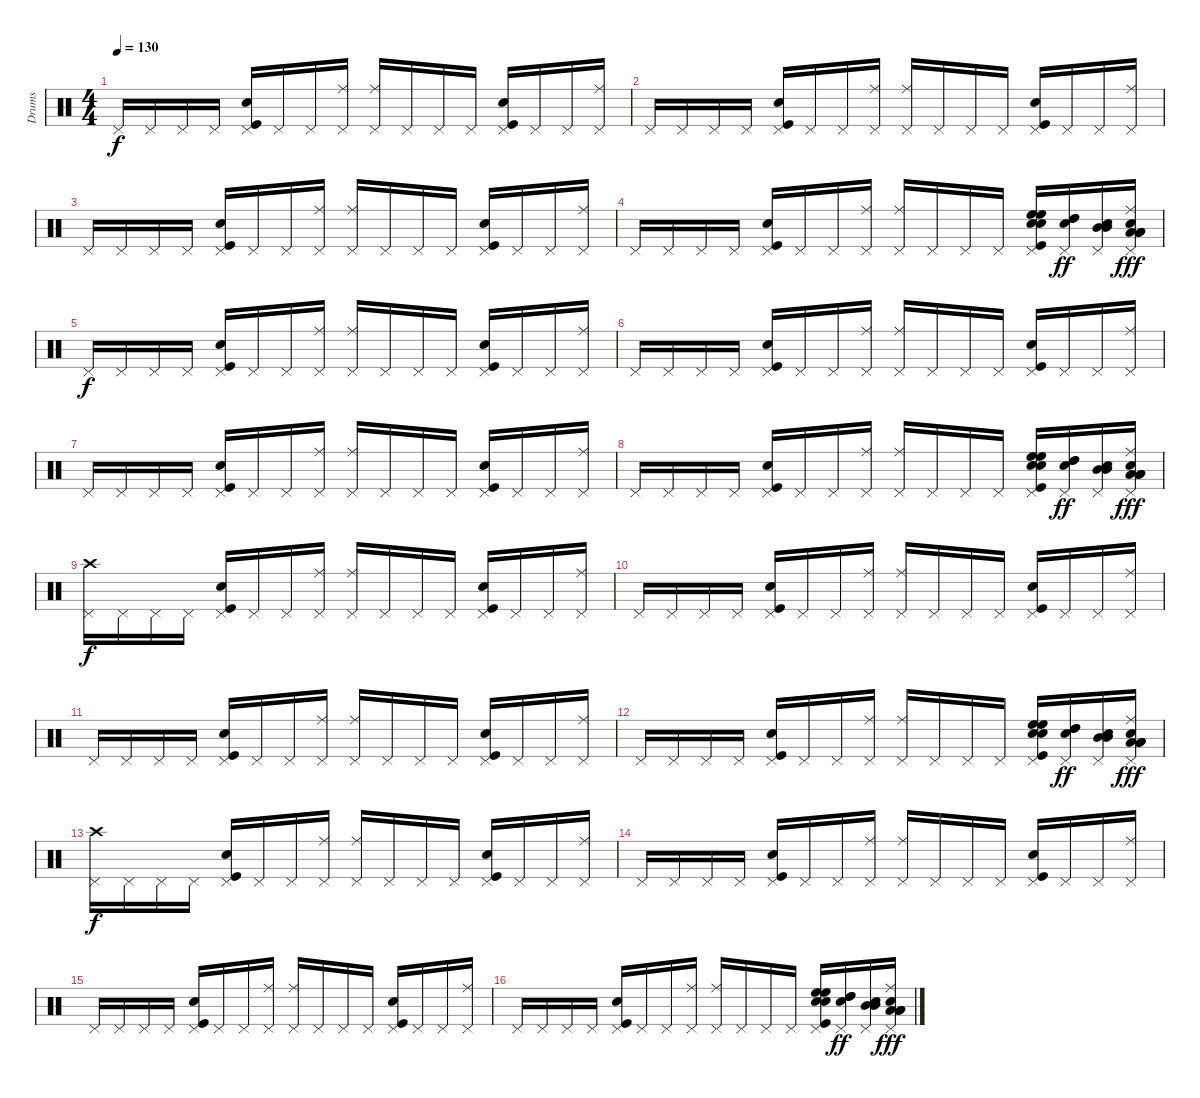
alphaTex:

\track ("Drums" "Drums") {instrument percussion}
\staff {score}
\articulation defaults
\ts (4 4)
\tempo 130
\clef neutral
\ks c "Pedal Hi-Hat (hit)".16{dy f} "Pedal Hi-Hat (hit)".16 "Pedal Hi-Hat (hit)".16 "Pedal Hi-Hat (hit)".16
("Pedal Hi-Hat (hit)" "Kick (hit)" "Electric Snare (hit)").16 "Pedal Hi-Hat (hit)".16 "Pedal Hi-Hat (hit)".16 ("Pedal Hi-Hat (hit)" "Ride (middle)").16 ("Pedal Hi-Hat (hit)" "Ride (middle)").16 "Pedal Hi-Hat (hit)".16 "Pedal Hi-Hat (hit)".16 "Pedal Hi-Hat (hit)".16 ("Kick (hit)" "Pedal Hi-Hat (hit)" "Electric Snare (hit)").16 "Pedal Hi-Hat (hit)".16 "Pedal Hi-Hat (hit)".16 ("Pedal Hi-Hat (hit)" "Ride (middle)").16 |
"Pedal Hi-Hat (hit)".16 "Pedal Hi-Hat (hit)".16 "Pedal Hi-Hat (hit)".16 "Pedal Hi-Hat (hit)".16 ("Pedal Hi-Hat (hit)" "Kick (hit)" "Electric Snare (hit)").16 "Pedal Hi-Hat (hit)".16 "Pedal Hi-Hat (hit)".16 ("Pedal Hi-Hat (hit)" "Ride (middle)").16 ("Pedal Hi-Hat (hit)" "Ride (middle)").16 "Pedal Hi-Hat (hit)".16 "Pedal Hi-Hat (hit)".16 "Pedal Hi-Hat (hit)".16 ("Kick (hit)" "Pedal Hi-Hat (hit)" "Electric Snare (hit)").16 "Pedal Hi-Hat (hit)".16 "Pedal Hi-Hat (hit)".16 ("Pedal Hi-Hat (hit)" "Ride (middle)").16 |
"Pedal Hi-Hat (hit)".16 "Pedal Hi-Hat (hit)".16 "Pedal Hi-Hat (hit)".16 "Pedal Hi-Hat (hit)".16 ("Pedal Hi-Hat (hit)" "Kick (hit)" "Electric Snare (hit)").16 "Pedal Hi-Hat (hit)".16 "Pedal Hi-Hat (hit)".16 ("Pedal Hi-Hat (hit)" "Ride (middle)").16 ("Pedal Hi-Hat (hit)" "Ride (middle)").16 "Pedal Hi-Hat (hit)".16 "Pedal Hi-Hat (hit)".16 "Pedal Hi-Hat (hit)".16 ("Kick (hit)" "Pedal Hi-Hat (hit)" "Electric Snare (hit)").16 "Pedal Hi-Hat (hit)".16 "Pedal Hi-Hat (hit)".16 ("Pedal Hi-Hat (hit)" "Ride (middle)").16 |
"Pedal Hi-Hat (hit)".16 "Pedal Hi-Hat (hit)".16 "Pedal Hi-Hat (hit)".16 "Pedal Hi-Hat (hit)".16 ("Pedal Hi-Hat (hit)" "Kick (hit)" "Electric Snare (hit)").16 "Pedal Hi-Hat (hit)".16 "Pedal Hi-Hat (hit)".16 ("Pedal Hi-Hat (hit)" "Ride (middle)").16 ("Pedal Hi-Hat (hit)" "Ride (middle)").16 "Pedal Hi-Hat (hit)".16 "Pedal Hi-Hat (hit)".16 "Pedal Hi-Hat (hit)".16 ("Kick (hit)" "Pedal Hi-Hat (hit)" "Electric Snare (hit)" "High Floor Tom (hit)" "High Floor Tom (hit)" "Snare (hit) 2").16 ("Pedal Hi-Hat (hit)" "High Tom (hit)" "High Tom (hit)" "Snare (hit) 2").16{dy ff} ("Pedal Hi-Hat (hit)" "Mid Tom (hit)" "Mid Tom (hit)" "Snare (hit) 2").16 ("Pedal Hi-Hat (hit)" "Ride (middle)" "Low Tom (hit)" "Low Tom (hit)" "Low Tom (hit)" "Snare (hit) 2").16{dy fff} |
"Pedal Hi-Hat (hit)".16{dy f} "Pedal Hi-Hat (hit)".16 "Pedal Hi-Hat (hit)".16 "Pedal Hi-Hat (hit)".16 ("Pedal Hi-Hat (hit)" "Kick (hit)" "Electric Snare (hit)").16 "Pedal Hi-Hat (hit)".16 "Pedal Hi-Hat (hit)".16 ("Pedal Hi-Hat (hit)" "Ride (middle)").16 ("Pedal Hi-Hat (hit)" "Ride (middle)").16 "Pedal Hi-Hat (hit)".16 "Pedal Hi-Hat (hit)".16 "Pedal Hi-Hat (hit)".16 ("Kick (hit)" "Pedal Hi-Hat (hit)" "Electric Snare (hit)").16 "Pedal Hi-Hat (hit)".16 "Pedal Hi-Hat (hit)".16 ("Pedal Hi-Hat (hit)" "Ride (middle)").16 |
"Pedal Hi-Hat (hit)".16 "Pedal Hi-Hat (hit)".16 "Pedal Hi-Hat (hit)".16 "Pedal Hi-Hat (hit)".16 ("Pedal Hi-Hat (hit)" "Kick (hit)" "Electric Snare (hit)").16 "Pedal Hi-Hat (hit)".16 "Pedal Hi-Hat (hit)".16 ("Pedal Hi-Hat (hit)" "Ride (middle)").16 ("Pedal Hi-Hat (hit)" "Ride (middle)").16 "Pedal Hi-Hat (hit)".16 "Pedal Hi-Hat (hit)".16 "Pedal Hi-Hat (hit)".16 ("Kick (hit)" "Pedal Hi-Hat (hit)" "Electric Snare (hit)").16 "Pedal Hi-Hat (hit)".16 "Pedal Hi-Hat (hit)".16 ("Pedal Hi-Hat (hit)" "Ride (middle)").16 |
"Pedal Hi-Hat (hit)".16 "Pedal Hi-Hat (hit)".16 "Pedal Hi-Hat (hit)".16 "Pedal Hi-Hat (hit)".16 ("Pedal Hi-Hat (hit)" "Kick (hit)" "Electric Snare (hit)").16 "Pedal Hi-Hat (hit)".16 "Pedal Hi-Hat (hit)".16 ("Pedal Hi-Hat (hit)" "Ride (middle)").16 ("Pedal Hi-Hat (hit)" "Ride (middle)").16 "Pedal Hi-Hat (hit)".16 "Pedal Hi-Hat (hit)".16 "Pedal Hi-Hat (hit)".16 ("Kick (hit)" "Pedal Hi-Hat (hit)" "Electric Snare (hit)").16 "Pedal Hi-Hat (hit)".16 "Pedal Hi-Hat (hit)".16 ("Pedal Hi-Hat (hit)" "Ride (middle)").16 |
"Pedal Hi-Hat (hit)".16 "Pedal Hi-Hat (hit)".16 "Pedal Hi-Hat (hit)".16 "Pedal Hi-Hat (hit)".16 ("Pedal Hi-Hat (hit)" "Kick (hit)" "Electric Snare (hit)").16 "Pedal Hi-Hat (hit)".16 "Pedal Hi-Hat (hit)".16 ("Pedal Hi-Hat (hit)" "Ride (middle)").16 ("Pedal Hi-Hat (hit)" "Ride (middle)").16 "Pedal Hi-Hat (hit)".16 "Pedal Hi-Hat (hit)".16 "Pedal Hi-Hat (hit)".16 ("Kick (hit)" "Pedal Hi-Hat (hit)" "Electric Snare (hit)" "High Floor Tom (hit)" "High Floor Tom (hit)" "Snare (hit) 2").16 ("Pedal Hi-Hat (hit)" "High Tom (hit)" "High Tom (hit)" "Snare (hit) 2").16{dy ff} ("Pedal Hi-Hat (hit)" "Mid Tom (hit)" "Mid Tom (hit)" "Snare (hit) 2").16 ("Pedal Hi-Hat (hit)" "Ride (middle)" "Low Tom (hit)" "Low Tom (hit)" "Low Tom (hit)" "Snare (hit) 2").16{dy fff} |
("Pedal Hi-Hat (hit)" "Crash high (hit)").16{dy f} "Pedal Hi-Hat (hit)".16 "Pedal Hi-Hat (hit)".16 "Pedal Hi-Hat (hit)".16 ("Pedal Hi-Hat (hit)" "Kick (hit)" "Electric Snare (hit)").16 "Pedal Hi-Hat (hit)".16 "Pedal Hi-Hat (hit)".16 ("Pedal Hi-Hat (hit)" "Ride (middle)").16 ("Pedal Hi-Hat (hit)" "Ride (middle)").16 "Pedal Hi-Hat (hit)".16 "Pedal Hi-Hat (hit)".16 "Pedal Hi-Hat (hit)".16 ("Kick (hit)" "Pedal Hi-Hat (hit)" "Electric Snare (hit)").16 "Pedal Hi-Hat (hit)".16 "Pedal Hi-Hat (hit)".16 ("Pedal Hi-Hat (hit)" "Ride (middle)").16 |
"Pedal Hi-Hat (hit)".16 "Pedal Hi-Hat (hit)".16 "Pedal Hi-Hat (hit)".16 "Pedal Hi-Hat (hit)".16 ("Pedal Hi-Hat (hit)" "Kick (hit)" "Electric Snare (hit)").16 "Pedal Hi-Hat (hit)".16 "Pedal Hi-Hat (hit)".16 ("Pedal Hi-Hat (hit)" "Ride (middle)").16 ("Pedal Hi-Hat (hit)" "Ride (middle)").16 "Pedal Hi-Hat (hit)".16 "Pedal Hi-Hat (hit)".16 "Pedal Hi-Hat (hit)".16 ("Kick (hit)" "Pedal Hi-Hat (hit)" "Electric Snare (hit)").16 "Pedal Hi-Hat (hit)".16 "Pedal Hi-Hat (hit)".16 ("Pedal Hi-Hat (hit)" "Ride (middle)").16 |
"Pedal Hi-Hat (hit)".16 "Pedal Hi-Hat (hit)".16 "Pedal Hi-Hat (hit)".16 "Pedal Hi-Hat (hit)".16 ("Pedal Hi-Hat (hit)" "Kick (hit)" "Electric Snare (hit)").16 "Pedal Hi-Hat (hit)".16 "Pedal Hi-Hat (hit)".16 ("Pedal Hi-Hat (hit)" "Ride (middle)").16 ("Pedal Hi-Hat (hit)" "Ride (middle)").16 "Pedal Hi-Hat (hit)".16 "Pedal Hi-Hat (hit)".16 "Pedal Hi-Hat (hit)".16 ("Kick (hit)" "Pedal Hi-Hat (hit)" "Electric Snare (hit)").16 "Pedal Hi-Hat (hit)".16 "Pedal Hi-Hat (hit)".16 ("Pedal Hi-Hat (hit)" "Ride (middle)").16 |
"Pedal Hi-Hat (hit)".16 "Pedal Hi-Hat (hit)".16 "Pedal Hi-Hat (hit)".16 "Pedal Hi-Hat (hit)".16 ("Pedal Hi-Hat (hit)" "Kick (hit)" "Electric Snare (hit)").16 "Pedal Hi-Hat (hit)".16 "Pedal Hi-Hat (hit)".16 ("Pedal Hi-Hat (hit)" "Ride (middle)").16 ("Pedal Hi-Hat (hit)" "Ride (middle)").16 "Pedal Hi-Hat (hit)".16 "Pedal Hi-Hat (hit)".16 "Pedal Hi-Hat (hit)".16 ("Kick (hit)" "Pedal Hi-Hat (hit)" "Electric Snare (hit)" "High Floor Tom (hit)" "High Floor Tom (hit)" "Snare (hit) 2").16 ("Pedal Hi-Hat (hit)" "High Tom (hit)" "High Tom (hit)" "Snare (hit) 2").16{dy ff} ("Pedal Hi-Hat (hit)" "Mid Tom (hit)" "Mid Tom (hit)" "Snare (hit) 2").16 ("Pedal Hi-Hat (hit)" "Ride (middle)" "Low Tom (hit)" "Low Tom (hit)" "Low Tom (hit)" "Snare (hit) 2").16{dy fff} |
("Pedal Hi-Hat (hit)" "Crash high (hit)").16{dy f} "Pedal Hi-Hat (hit)".16 "Pedal Hi-Hat (hit)".16 "Pedal Hi-Hat (hit)".16 ("Pedal Hi-Hat (hit)" "Kick (hit)" "Electric Snare (hit)").16 "Pedal Hi-Hat (hit)".16 "Pedal Hi-Hat (hit)".16 ("Pedal Hi-Hat (hit)" "Ride (middle)").16 ("Pedal Hi-Hat (hit)" "Ride (middle)").16 "Pedal Hi-Hat (hit)".16 "Pedal Hi-Hat (hit)".16 "Pedal Hi-Hat (hit)".16 ("Kick (hit)" "Pedal Hi-Hat (hit)" "Electric Snare (hit)").16 "Pedal Hi-Hat (hit)".16 "Pedal Hi-Hat (hit)".16 ("Pedal Hi-Hat (hit)" "Ride (middle)").16 |
"Pedal Hi-Hat (hit)".16 "Pedal Hi-Hat (hit)".16 "Pedal Hi-Hat (hit)".16 "Pedal Hi-Hat (hit)".16 ("Pedal Hi-Hat (hit)" "Kick (hit)" "Electric Snare (hit)").16 "Pedal Hi-Hat (hit)".16 "Pedal Hi-Hat (hit)".16 ("Pedal Hi-Hat (hit)" "Ride (middle)").16 ("Pedal Hi-Hat (hit)" "Ride (middle)").16 "Pedal Hi-Hat (hit)".16 "Pedal Hi-Hat (hit)".16 "Pedal Hi-Hat (hit)".16 ("Kick (hit)" "Pedal Hi-Hat (hit)" "Electric Snare (hit)").16 "Pedal Hi-Hat (hit)".16 "Pedal Hi-Hat (hit)".16 ("Pedal Hi-Hat (hit)" "Ride (middle)").16 |
"Pedal Hi-Hat (hit)".16 "Pedal Hi-Hat (hit)".16 "Pedal Hi-Hat (hit)".16 "Pedal Hi-Hat (hit)".16 ("Pedal Hi-Hat (hit)" "Kick (hit)" "Electric Snare (hit)").16 "Pedal Hi-Hat (hit)".16 "Pedal Hi-Hat (hit)".16 ("Pedal Hi-Hat (hit)" "Ride (middle)").16 ("Pedal Hi-Hat (hit)" "Ride (middle)").16 "Pedal Hi-Hat (hit)".16 "Pedal Hi-Hat (hit)".16 "Pedal Hi-Hat (hit)".16 ("Kick (hit)" "Pedal Hi-Hat (hit)" "Electric Snare (hit)").16 "Pedal Hi-Hat (hit)".16 "Pedal Hi-Hat (hit)".16 ("Pedal Hi-Hat (hit)" "Ride (middle)").16 |
"Pedal Hi-Hat (hit)".16 "Pedal Hi-Hat (hit)".16 "Pedal Hi-Hat (hit)".16 "Pedal Hi-Hat (hit)".16 ("Pedal Hi-Hat (hit)" "Kick (hit)" "Electric Snare (hit)").16 "Pedal Hi-Hat (hit)".16 "Pedal Hi-Hat (hit)".16 ("Pedal Hi-Hat (hit)" "Ride (middle)").16 ("Pedal Hi-Hat (hit)" "Ride (middle)").16 "Pedal Hi-Hat (hit)".16 "Pedal Hi-Hat (hit)".16 "Pedal Hi-Hat (hit)".16 ("Kick (hit)" "Pedal Hi-Hat (hit)" "Electric Snare (hit)" "High Floor Tom (hit)" "High Floor Tom (hit)" "Snare (hit) 2").16 ("Pedal Hi-Hat (hit)" "High Tom (hit)" "High Tom (hit)" "Snare (hit) 2").16{dy ff} ("Pedal Hi-Hat (hit)" "Mid Tom (hit)" "Mid Tom (hit)" "Snare (hit) 2").16 ("Pedal Hi-Hat (hit)" "Ride (middle)" "Low Tom (hit)" "Low Tom (hit)" "Low Tom (hit)" "Snare (hit) 2").16{dy fff}
